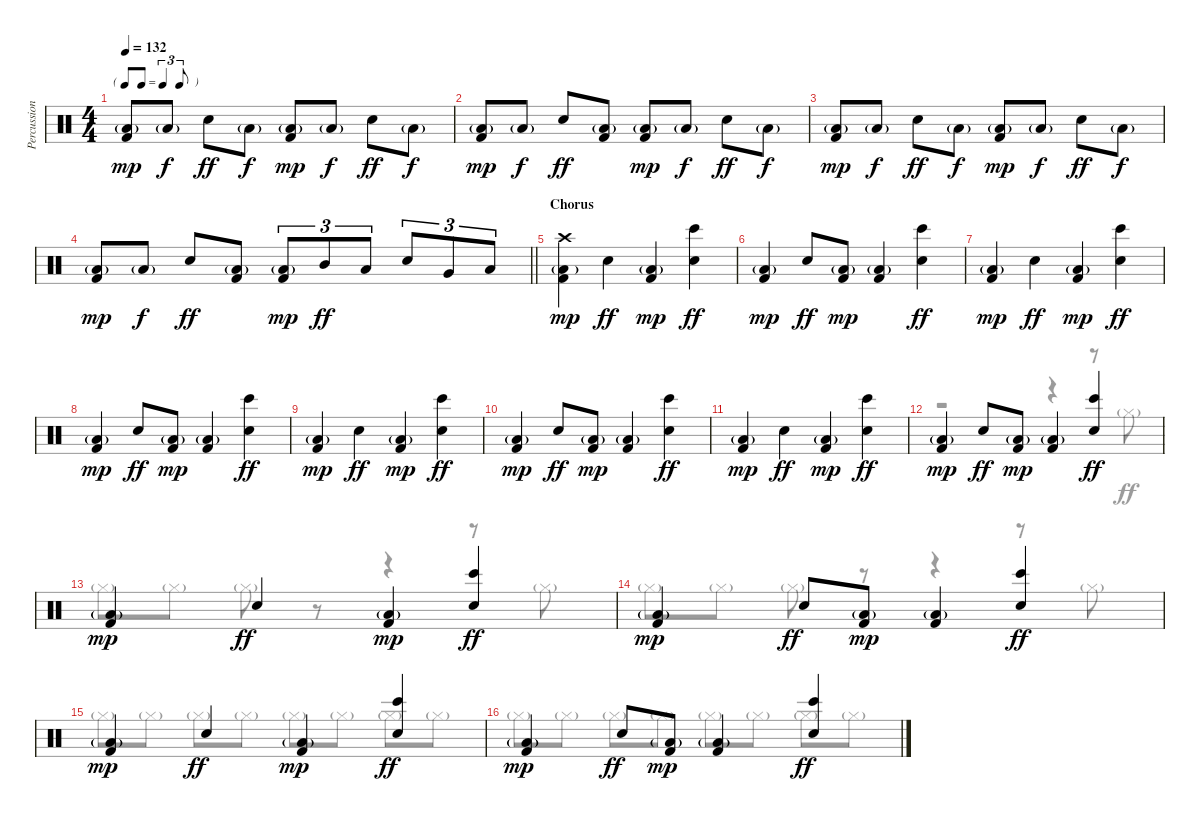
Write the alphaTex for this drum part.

\track ("Percussion" "Percussion") {instrument percussion}
\staff {score}
\articulation defaults
\voice
\ts (4 4)
\tf triplet8th
\tempo 132
\clef neutral
\ks c
("Kick (hit) 2" "Low Floor Tom (hit)"{g}).8{dy mp} "Low Floor Tom (hit)"{g}.8{dy f} "Snare (hit) 2".8{dy ff} "Low Floor Tom (hit)"{g}.8{dy f} ("Kick (hit) 2" "Low Floor Tom (hit)"{g}).8{dy mp} "Low Floor Tom (hit)"{g}.8{dy f} "Snare (hit) 2".8{dy ff} "Low Floor Tom (hit)"{g}.8{dy f} |
("Kick (hit) 2" "Low Floor Tom (hit)"{g}).8{dy mp} "Low Floor Tom (hit)"{g}.8{dy f} "Snare (hit) 2".8{dy ff} ("Kick (hit) 2" "Low Floor Tom (hit)"{g}).8 ("Kick (hit) 2" "Low Floor Tom (hit)"{g}).8{dy mp} "Low Floor Tom (hit)"{g}.8{dy f} "Snare (hit) 2".8{dy ff} "Low Floor Tom (hit)"{g}.8{dy f} |
("Kick (hit) 2" "Low Floor Tom (hit)"{g}).8{dy mp} "Low Floor Tom (hit)"{g}.8{dy f} "Snare (hit) 2".8{dy ff} "Low Floor Tom (hit)"{g}.8{dy f} ("Kick (hit) 2" "Low Floor Tom (hit)"{g}).8{dy mp} "Low Floor Tom (hit)"{g}.8{dy f} "Snare (hit) 2".8{dy ff} "Low Floor Tom (hit)"{g}.8{dy f} |
\barLineRight lightlight
("Kick (hit) 2" "Low Floor Tom (hit)"{g}).8{dy mp} "Low Floor Tom (hit)"{g}.8{dy f} "Snare (hit) 2".8{dy ff} ("Kick (hit) 2" "Low Floor Tom (hit)"{g}).8 ("Kick (hit) 2" "Low Floor Tom (hit)"{g}).8{tu (3 2) dy mp} "Mid Tom (hit)".8{tu (3 2) dy ff} "Low Tom (hit)".8{tu (3 2)} "Snare (hit) 2".8{tu (3 2)} "Very Low Tom (hit)".8{tu (3 2)} "Low Floor Tom (hit)".8{tu (3 2)} |
\section ("" "Chorus")
("Kick (hit) 2" "Low Floor Tom (hit)"{g} "Crash high (hit)").4{dy mp} "Snare (hit) 2".4{dy ff} ("Kick (hit) 2" "Low Floor Tom (hit)"{g}).4{dy mp} ("Snare (hit) 2" "Bongo High (hit)").4{dy ff} |
("Kick (hit) 2" "Low Floor Tom (hit)"{g}).4{dy mp} "Snare (hit) 2".8{dy ff} ("Kick (hit) 2" "Low Floor Tom (hit)"{g}).8{dy mp} ("Kick (hit) 2" "Low Floor Tom (hit)"{g}).4 ("Snare (hit) 2" "Bongo High (hit)").4{dy ff} |
("Kick (hit) 2" "Low Floor Tom (hit)"{g}).4{dy mp} "Snare (hit) 2".4{dy ff} ("Kick (hit) 2" "Low Floor Tom (hit)"{g}).4{dy mp} ("Snare (hit) 2" "Bongo High (hit)").4{dy ff} |
("Kick (hit) 2" "Low Floor Tom (hit)"{g}).4{dy mp} "Snare (hit) 2".8{dy ff} ("Kick (hit) 2" "Low Floor Tom (hit)"{g}).8{dy mp} ("Kick (hit) 2" "Low Floor Tom (hit)"{g}).4 ("Snare (hit) 2" "Bongo High (hit)").4{dy ff} |
("Kick (hit) 2" "Low Floor Tom (hit)"{g}).4{dy mp} "Snare (hit) 2".4{dy ff} ("Kick (hit) 2" "Low Floor Tom (hit)"{g}).4{dy mp} ("Snare (hit) 2" "Bongo High (hit)").4{dy ff} |
("Kick (hit) 2" "Low Floor Tom (hit)"{g}).4{dy mp} "Snare (hit) 2".8{dy ff} ("Kick (hit) 2" "Low Floor Tom (hit)"{g}).8{dy mp} ("Kick (hit) 2" "Low Floor Tom (hit)"{g}).4 ("Snare (hit) 2" "Bongo High (hit)").4{dy ff} |
("Kick (hit) 2" "Low Floor Tom (hit)"{g}).4{dy mp} "Snare (hit) 2".4{dy ff} ("Kick (hit) 2" "Low Floor Tom (hit)"{g}).4{dy mp} ("Snare (hit) 2" "Bongo High (hit)").4{dy ff} |
("Kick (hit) 2" "Low Floor Tom (hit)"{g}).4{dy mp} "Snare (hit) 2".8{dy ff} ("Kick (hit) 2" "Low Floor Tom (hit)"{g}).8{dy mp} ("Kick (hit) 2" "Low Floor Tom (hit)"{g}).4 ("Snare (hit) 2" "Bongo High (hit)").4{dy ff} |
("Kick (hit) 2" "Low Floor Tom (hit)"{g}).4{dy mp} "Snare (hit) 2".4{dy ff} ("Kick (hit) 2" "Low Floor Tom (hit)"{g}).4{dy mp} ("Snare (hit) 2" "Bongo High (hit)").4{dy ff} |
("Kick (hit) 2" "Low Floor Tom (hit)"{g}).4{dy mp} "Snare (hit) 2".8{dy ff} ("Kick (hit) 2" "Low Floor Tom (hit)"{g}).8{dy mp} ("Kick (hit) 2" "Low Floor Tom (hit)"{g}).4 ("Snare (hit) 2" "Bongo High (hit)").4{dy ff} |
("Kick (hit) 2" "Low Floor Tom (hit)"{g}).4{dy mp} "Snare (hit) 2".4{dy ff} ("Kick (hit) 2" "Low Floor Tom (hit)"{g}).4{dy mp} ("Snare (hit) 2" "Bongo High (hit)").4{dy ff} |
("Kick (hit) 2" "Low Floor Tom (hit)"{g}).4{dy mp} "Snare (hit) 2".8{dy ff} ("Kick (hit) 2" "Low Floor Tom (hit)"{g}).8{dy mp} ("Kick (hit) 2" "Low Floor Tom (hit)"{g}).4 ("Snare (hit) 2" "Bongo High (hit)").4{dy ff}
\voice
\clef neutral
\ottava regular
\simile none
\ks c
|
|
|
\barLineRight lightlight
|
|
|
|
|
|
|
|
r.2 r.4 r.8 "Hi-Hat (closed)"{g}.8 |
"Hi-Hat (closed)"{g}.8 "Hi-Hat (closed)"{g}.8 "Hi-Hat (closed)"{g}.8 r.8 r.4 r.8 "Hi-Hat (closed)"{g}.8 |
"Hi-Hat (closed)"{g}.8 "Hi-Hat (closed)"{g}.8 "Hi-Hat (closed)"{g}.8 r.8 r.4 r.8 "Hi-Hat (closed)"{g}.8 |
"Hi-Hat (closed)"{g}.8 "Hi-Hat (closed)"{g}.8 "Hi-Hat (closed)"{g}.8 "Hi-Hat (closed)"{g}.8 "Hi-Hat (closed)"{g}.8 "Hi-Hat (closed)"{g}.8 "Hi-Hat (closed)"{g}.8 "Hi-Hat (closed)"{g}.8 |
"Hi-Hat (closed)"{g}.8 "Hi-Hat (closed)"{g}.8 "Hi-Hat (closed)"{g}.8 "Hi-Hat (closed)"{g}.8 "Hi-Hat (closed)"{g}.8 "Hi-Hat (closed)"{g}.8 "Hi-Hat (closed)"{g}.8 "Hi-Hat (closed)"{g}.8
